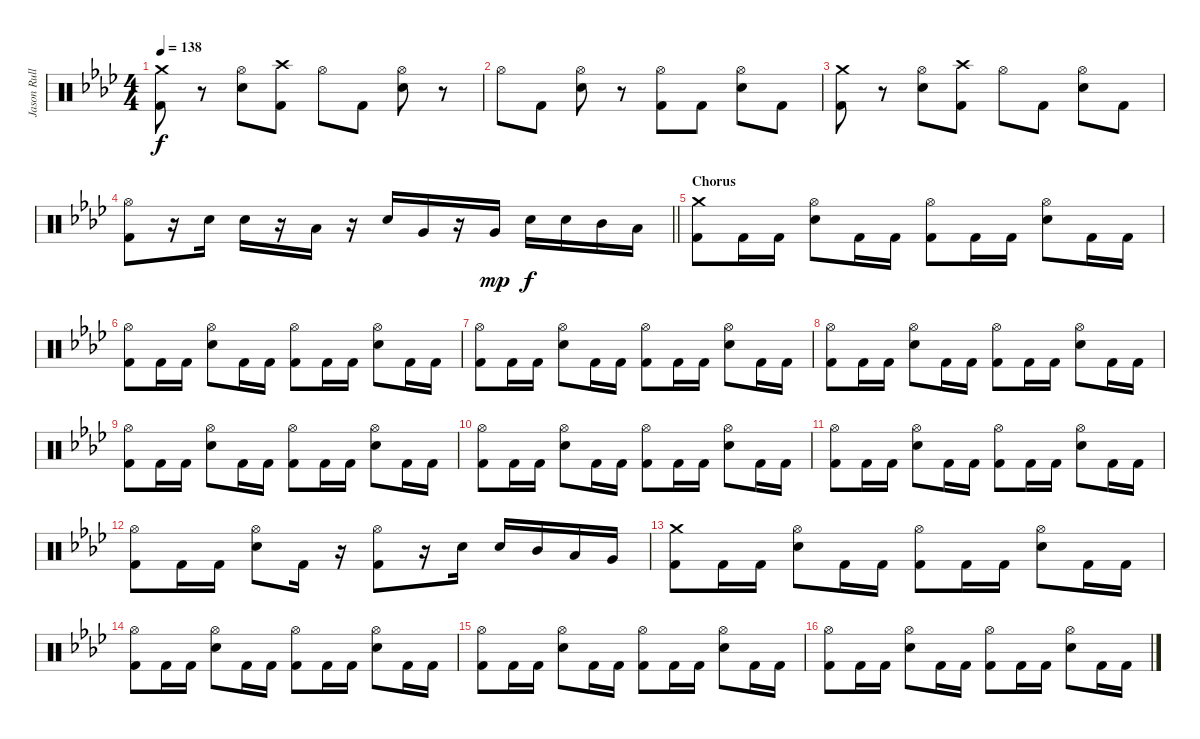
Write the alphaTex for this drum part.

\track ("Jason Rullo (drums)" "Jason Rull") {instrument percussion}
\staff {score}
\articulation defaults
\ts (4 4)
\tempo 138
\clef neutral
\ks fminor
("Crash medium (hit)" "Kick (hit) 2").8{dy f} r.8 ("Electric Snare (hit)" "Hi-Hat (open)").8 ("Kick (hit) 2" "Crash high (hit)").8 "Hi-Hat (open)".8 "Kick (hit) 2".8 ("Hi-Hat (open)" "Electric Snare (hit)").8 r.8 |
"Hi-Hat (open)".8 "Kick (hit) 2".8 ("Hi-Hat (open)" "Electric Snare (hit)").8 r.8 ("Hi-Hat (open)" "Kick (hit) 2").8 "Kick (hit) 2".8 ("Hi-Hat (open)" "Electric Snare (hit)").8 "Kick (hit) 2".8 |
("Kick (hit) 2" "Crash medium (hit)").8 r.8 ("Electric Snare (hit)" "Hi-Hat (open)").8 ("Kick (hit) 2" "Crash high (hit)").8 "Hi-Hat (open)".8 "Kick (hit) 2".8 ("Hi-Hat (open)" "Electric Snare (hit)").8 "Kick (hit) 2".8 |
\barLineRight lightlight
("Kick (hit) 2" "Hi-Hat (open)").8 r.16 "Electric Snare (hit)".16 "Electric Snare (hit)".16 r.16 "Low Tom (hit)".16 r.16 "Electric Snare (hit)".16 "Very Low Tom (hit)".16 r.16 "Very Low Tom (hit)".16{dy mp} "Electric Snare (hit)".16{dy f} "Electric Snare (hit)".16 "Mid Tom (hit)".16 "Low Tom (hit)".16 |
\section ("" "Chorus")
("Crash medium (hit)" "Kick (hit) 2").8 "Kick (hit) 2".16 "Kick (hit) 2".16 ("Hi-Hat (open)" "Electric Snare (hit)").8 "Kick (hit) 2".16 "Kick (hit) 2".16 ("Hi-Hat (open)" "Kick (hit) 2").8 "Kick (hit) 2".16 "Kick (hit) 2".16 ("Hi-Hat (open)" "Electric Snare (hit)").8 "Kick (hit) 2".16 "Kick (hit) 2".16 |
("Hi-Hat (open)" "Kick (hit) 2").8 "Kick (hit) 2".16 "Kick (hit) 2".16 ("Hi-Hat (open)" "Electric Snare (hit)").8 "Kick (hit) 2".16 "Kick (hit) 2".16 ("Hi-Hat (open)" "Kick (hit) 2").8 "Kick (hit) 2".16 "Kick (hit) 2".16 ("Hi-Hat (open)" "Electric Snare (hit)").8 "Kick (hit) 2".16 "Kick (hit) 2".16 |
("Hi-Hat (open)" "Kick (hit) 2").8 "Kick (hit) 2".16 "Kick (hit) 2".16 ("Hi-Hat (open)" "Electric Snare (hit)").8 "Kick (hit) 2".16 "Kick (hit) 2".16 ("Hi-Hat (open)" "Kick (hit) 2").8 "Kick (hit) 2".16 "Kick (hit) 2".16 ("Hi-Hat (open)" "Electric Snare (hit)").8 "Kick (hit) 2".16 "Kick (hit) 2".16 |
("Hi-Hat (open)" "Kick (hit) 2").8 "Kick (hit) 2".16 "Kick (hit) 2".16 ("Hi-Hat (open)" "Electric Snare (hit)").8 "Kick (hit) 2".16 "Kick (hit) 2".16 ("Hi-Hat (open)" "Kick (hit) 2").8 "Kick (hit) 2".16 "Kick (hit) 2".16 ("Hi-Hat (open)" "Electric Snare (hit)").8 "Kick (hit) 2".16 "Kick (hit) 2".16 |
("Hi-Hat (open)" "Kick (hit) 2").8 "Kick (hit) 2".16 "Kick (hit) 2".16 ("Hi-Hat (open)" "Electric Snare (hit)").8 "Kick (hit) 2".16 "Kick (hit) 2".16 ("Hi-Hat (open)" "Kick (hit) 2").8 "Kick (hit) 2".16 "Kick (hit) 2".16 ("Hi-Hat (open)" "Electric Snare (hit)").8 "Kick (hit) 2".16 "Kick (hit) 2".16 |
("Hi-Hat (open)" "Kick (hit) 2").8 "Kick (hit) 2".16 "Kick (hit) 2".16 ("Hi-Hat (open)" "Electric Snare (hit)").8 "Kick (hit) 2".16 "Kick (hit) 2".16 ("Hi-Hat (open)" "Kick (hit) 2").8 "Kick (hit) 2".16 "Kick (hit) 2".16 ("Hi-Hat (open)" "Electric Snare (hit)").8 "Kick (hit) 2".16 "Kick (hit) 2".16 |
("Hi-Hat (open)" "Kick (hit) 2").8 "Kick (hit) 2".16 "Kick (hit) 2".16 ("Hi-Hat (open)" "Electric Snare (hit)").8 "Kick (hit) 2".16 "Kick (hit) 2".16 ("Hi-Hat (open)" "Kick (hit) 2").8 "Kick (hit) 2".16 "Kick (hit) 2".16 ("Hi-Hat (open)" "Electric Snare (hit)").8 "Kick (hit) 2".16 "Kick (hit) 2".16 |
("Hi-Hat (open)" "Kick (hit) 2").8 "Kick (hit) 2".16 "Kick (hit) 2".16 ("Hi-Hat (open)" "Electric Snare (hit)").8 "Kick (hit) 2".16 r.16 ("Hi-Hat (open)" "Kick (hit) 2").8 r.16 "Electric Snare (hit)".16 "Electric Snare (hit)".16 "Mid Tom (hit)".16 "Low Tom (hit)".16 "Very Low Tom (hit)".16 |
("Crash medium (hit)" "Kick (hit) 2").8 "Kick (hit) 2".16 "Kick (hit) 2".16 ("Hi-Hat (open)" "Electric Snare (hit)").8 "Kick (hit) 2".16 "Kick (hit) 2".16 ("Hi-Hat (open)" "Kick (hit) 2").8 "Kick (hit) 2".16 "Kick (hit) 2".16 ("Hi-Hat (open)" "Electric Snare (hit)").8 "Kick (hit) 2".16 "Kick (hit) 2".16 |
("Hi-Hat (open)" "Kick (hit) 2").8 "Kick (hit) 2".16 "Kick (hit) 2".16 ("Hi-Hat (open)" "Electric Snare (hit)").8 "Kick (hit) 2".16 "Kick (hit) 2".16 ("Hi-Hat (open)" "Kick (hit) 2").8 "Kick (hit) 2".16 "Kick (hit) 2".16 ("Hi-Hat (open)" "Electric Snare (hit)").8 "Kick (hit) 2".16 "Kick (hit) 2".16 |
("Hi-Hat (open)" "Kick (hit) 2").8 "Kick (hit) 2".16 "Kick (hit) 2".16 ("Hi-Hat (open)" "Electric Snare (hit)").8 "Kick (hit) 2".16 "Kick (hit) 2".16 ("Hi-Hat (open)" "Kick (hit) 2").8 "Kick (hit) 2".16 "Kick (hit) 2".16 ("Hi-Hat (open)" "Electric Snare (hit)").8 "Kick (hit) 2".16 "Kick (hit) 2".16 |
("Hi-Hat (open)" "Kick (hit) 2").8 "Kick (hit) 2".16 "Kick (hit) 2".16 ("Hi-Hat (open)" "Electric Snare (hit)").8 "Kick (hit) 2".16 "Kick (hit) 2".16 ("Hi-Hat (open)" "Kick (hit) 2").8 "Kick (hit) 2".16 "Kick (hit) 2".16 ("Hi-Hat (open)" "Electric Snare (hit)").8 "Kick (hit) 2".16 "Kick (hit) 2".16
